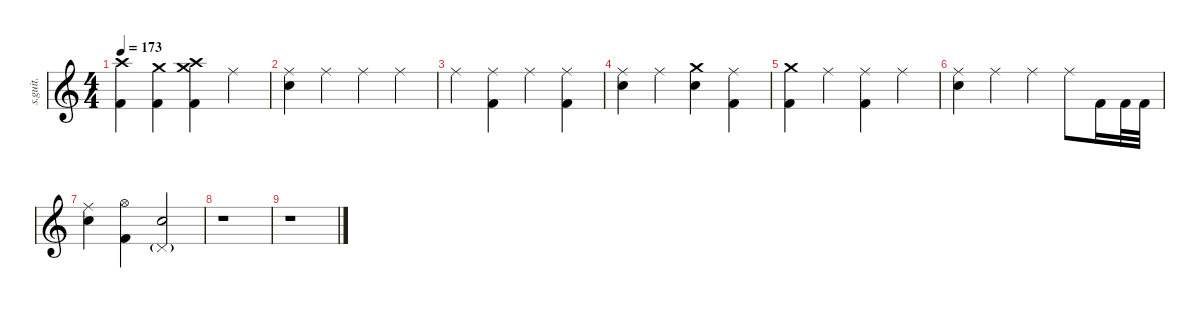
\defaultSystemsLayout 4
\hideDynamics
\bracketExtendMode nobrackets
\track ("II" "s.guit.") {instrument percussion}
\staff {score}
\articulation defaults
\ts (4 4)
\tempo 173
\clef g2
\ks c
("Kick (hit) 2" "Crash high (hit)").4{lyrics (0 "") lyrics (1 "") lyrics (2 "") lyrics (3 "") lyrics (4 "") dy mf} ("Crash medium (hit)" "Kick (hit) 2").4{lyrics (0 "") lyrics (1 "") lyrics (2 "") lyrics (3 "") lyrics (4 "")} ("Kick (hit) 2" "Crash medium (hit)" "Crash high (hit)").4{lyrics (0 "") lyrics (1 "") lyrics (2 "") lyrics (3 "") lyrics (4 "")} "Ride (middle)".4{lyrics (0 "") lyrics (1 "") lyrics (2 "") lyrics (3 "") lyrics (4 "")} |
("Ride (middle)" "Snare (hit) 2").4{lyrics (0 "") lyrics (1 "") lyrics (2 "") lyrics (3 "") lyrics (4 "")} "Ride (middle)".4{lyrics (0 "") lyrics (1 "") lyrics (2 "") lyrics (3 "") lyrics (4 "")} "Ride (middle)".4{lyrics (0 "") lyrics (1 "") lyrics (2 "") lyrics (3 "") lyrics (4 "")} "Ride (middle)".4{lyrics (0 "") lyrics (1 "") lyrics (2 "") lyrics (3 "") lyrics (4 "")} |
"Ride (middle)".4{lyrics (0 "") lyrics (1 "") lyrics (2 "") lyrics (3 "") lyrics (4 "")} ("Ride (middle)" "Kick (hit) 2").4{lyrics (0 "") lyrics (1 "") lyrics (2 "") lyrics (3 "") lyrics (4 "")} "Ride (middle)".4{lyrics (0 "") lyrics (1 "") lyrics (2 "") lyrics (3 "") lyrics (4 "")} ("Ride (middle)" "Kick (hit) 2").4{lyrics (0 "") lyrics (1 "") lyrics (2 "") lyrics (3 "") lyrics (4 "")} |
("Snare (hit) 2" "Ride (middle)").4{lyrics (0 "") lyrics (1 "") lyrics (2 "") lyrics (3 "") lyrics (4 "")} "Ride (middle)".4{lyrics (0 "") lyrics (1 "") lyrics (2 "") lyrics (3 "") lyrics (4 "")} ("Snare (hit) 2" "Crash medium (hit)").4{lyrics (0 "") lyrics (1 "") lyrics (2 "") lyrics (3 "") lyrics (4 "")} ("Kick (hit) 2" "Ride (middle)").4{lyrics (0 "") lyrics (1 "") lyrics (2 "") lyrics (3 "") lyrics (4 "")} |
("Kick (hit) 2" "Crash medium (hit)").4{lyrics (0 "") lyrics (1 "") lyrics (2 "") lyrics (3 "") lyrics (4 "")} "Ride (middle)".4{lyrics (0 "") lyrics (1 "") lyrics (2 "") lyrics (3 "") lyrics (4 "")} ("Ride (middle)" "Kick (hit) 2").4{lyrics (0 "") lyrics (1 "") lyrics (2 "") lyrics (3 "") lyrics (4 "")} "Ride (middle)".4{lyrics (0 "") lyrics (1 "") lyrics (2 "") lyrics (3 "") lyrics (4 "")} |
("Ride (middle)" "Snare (hit) 2").4{lyrics (0 "") lyrics (1 "") lyrics (2 "") lyrics (3 "") lyrics (4 "")} "Ride (middle)".4{lyrics (0 "") lyrics (1 "") lyrics (2 "") lyrics (3 "") lyrics (4 "")} "Ride (middle)".4{lyrics (0 "") lyrics (1 "") lyrics (2 "") lyrics (3 "") lyrics (4 "")} "Ride (middle)".8{lyrics (0 "") lyrics (1 "") lyrics (2 "") lyrics (3 "") lyrics (4 "")} "Kick (hit) 2".16{lyrics (0 "") lyrics (1 "") lyrics (2 "") lyrics (3 "") lyrics (4 "")} "Kick (hit) 2".32{lyrics (0 "") lyrics (1 "") lyrics (2 "") lyrics (3 "") lyrics (4 "")} "Kick (hit) 2".32{lyrics (0 "") lyrics (1 "") lyrics (2 "") lyrics (3 "") lyrics (4 "")} |
("Snare (hit) 2" "Ride (middle)").4{lyrics (0 "") lyrics (1 "") lyrics (2 "") lyrics (3 "") lyrics (4 "")} ("Hi-Hat (open)" "Kick (hit) 2").4{lyrics (0 "") lyrics (1 "") lyrics (2 "") lyrics (3 "") lyrics (4 "")} ("Snare (hit) 2" "Pedal Hi-Hat (hit)"{g}).2{lyrics (0 "") lyrics (1 "") lyrics (2 "") lyrics (3 "") lyrics (4 "")} |
r.1 |
r.1
